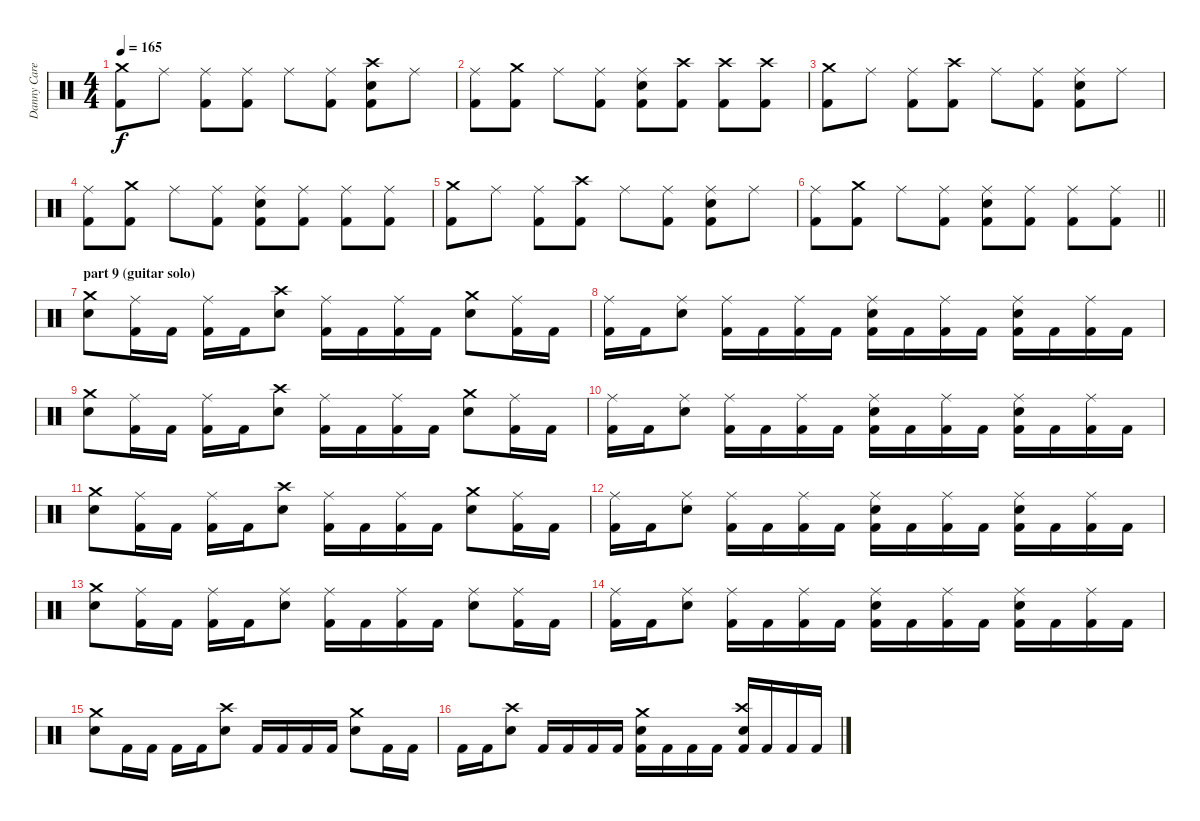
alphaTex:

\track ("Danny Carey / drums" "Danny Care") {instrument percussion}
\staff {score}
\articulation defaults
\ts (4 4)
\tempo 165
\clef neutral
\ks c
("Crash medium (hit)" "Kick (hit) 2").8{dy f} "Ride (middle)".8 ("Ride (middle)" "Kick (hit) 2").8 ("Ride (middle)" "Kick (hit) 2").8 "Ride (middle)".8 ("Ride (middle)" "Kick (hit) 2").8 ("Crash high (hit)" "Electric Snare (hit)" "Kick (hit) 2").8 "Ride (middle)".8 |
("Ride (middle)" "Kick (hit) 2").8 ("Crash medium (hit)" "Kick (hit) 2").8 "Ride (middle)".8 ("Ride (middle)" "Kick (hit) 2").8 ("Ride (middle)" "Electric Snare (hit)" "Kick (hit) 2").8 ("Crash high (hit)" "Kick (hit) 2").8 ("Crash high (hit)" "Kick (hit) 2").8 ("Crash high (hit)" "Kick (hit) 2").8 |
("Crash medium (hit)" "Kick (hit) 2").8 "Ride (middle)".8 ("Ride (middle)" "Kick (hit) 2").8 ("Crash high (hit)" "Kick (hit) 2").8 "Ride (middle)".8 ("Ride (middle)" "Kick (hit) 2").8 ("Ride (middle)" "Electric Snare (hit)" "Kick (hit) 2").8 "Ride (middle)".8 |
("Ride (middle)" "Kick (hit) 2").8 ("Crash medium (hit)" "Kick (hit) 2").8 "Ride (middle)".8 ("Ride (middle)" "Kick (hit) 2").8 ("Ride (middle)" "Electric Snare (hit)" "Kick (hit) 2").8 ("Ride (middle)" "Kick (hit) 2").8 ("Ride (middle)" "Kick (hit) 2").8 ("Ride (middle)" "Kick (hit) 2").8 |
("Crash medium (hit)" "Kick (hit) 2").8 "Ride (middle)".8 ("Ride (middle)" "Kick (hit) 2").8 ("Crash high (hit)" "Kick (hit) 2").8 "Ride (middle)".8 ("Ride (middle)" "Kick (hit) 2").8 ("Ride (middle)" "Electric Snare (hit)" "Kick (hit) 2").8 "Ride (middle)".8 |
\barLineRight lightlight
("Ride (middle)" "Kick (hit) 2").8 ("Crash medium (hit)" "Kick (hit) 2").8 "Ride (middle)".8 ("Ride (middle)" "Kick (hit) 2").8 ("Ride (middle)" "Electric Snare (hit)" "Kick (hit) 2").8 ("Ride (middle)" "Kick (hit) 2").8 ("Ride (middle)" "Kick (hit) 2").8 ("Ride (middle)" "Kick (hit) 2").8 |
\section ("" "part 9 (guitar solo)")
("Crash medium (hit)" "Electric Snare (hit)").8 ("Ride (middle)" "Kick (hit) 2").16 "Kick (hit) 2".16 ("Ride (middle)" "Kick (hit) 2").16 "Kick (hit) 2".16 ("Crash high (hit)" "Electric Snare (hit)").8 ("Ride (middle)" "Kick (hit) 2").16 "Kick (hit) 2".16 ("Ride (middle)" "Kick (hit) 2").16 "Kick (hit) 2".16 ("Crash medium (hit)" "Electric Snare (hit)").8 ("Ride (middle)" "Kick (hit) 2").16 "Kick (hit) 2".16 |
("Ride (middle)" "Kick (hit) 2").16 "Kick (hit) 2".16 ("Ride (middle)" "Electric Snare (hit)").8 ("Ride (middle)" "Kick (hit) 2").16 "Kick (hit) 2".16 ("Ride (middle)" "Kick (hit) 2").16 "Kick (hit) 2".16 ("Ride (middle)" "Electric Snare (hit)" "Kick (hit) 2").16 "Kick (hit) 2".16 ("Ride (middle)" "Kick (hit) 2").16 "Kick (hit) 2".16 ("Ride (middle)" "Electric Snare (hit)" "Kick (hit) 2").16 "Kick (hit) 2".16 ("Ride (middle)" "Kick (hit) 2").16 "Kick (hit) 2".16 |
("Crash medium (hit)" "Electric Snare (hit)").8 ("Ride (middle)" "Kick (hit) 2").16 "Kick (hit) 2".16 ("Ride (middle)" "Kick (hit) 2").16 "Kick (hit) 2".16 ("Crash high (hit)" "Electric Snare (hit)").8 ("Ride (middle)" "Kick (hit) 2").16 "Kick (hit) 2".16 ("Ride (middle)" "Kick (hit) 2").16 "Kick (hit) 2".16 ("Crash medium (hit)" "Electric Snare (hit)").8 ("Ride (middle)" "Kick (hit) 2").16 "Kick (hit) 2".16 |
("Ride (middle)" "Kick (hit) 2").16 "Kick (hit) 2".16 ("Ride (middle)" "Electric Snare (hit)").8 ("Ride (middle)" "Kick (hit) 2").16 "Kick (hit) 2".16 ("Ride (middle)" "Kick (hit) 2").16 "Kick (hit) 2".16 ("Ride (middle)" "Electric Snare (hit)" "Kick (hit) 2").16 "Kick (hit) 2".16 ("Ride (middle)" "Kick (hit) 2").16 "Kick (hit) 2".16 ("Ride (middle)" "Electric Snare (hit)" "Kick (hit) 2").16 "Kick (hit) 2".16 ("Ride (middle)" "Kick (hit) 2").16 "Kick (hit) 2".16 |
("Crash medium (hit)" "Electric Snare (hit)").8 ("Ride (middle)" "Kick (hit) 2").16 "Kick (hit) 2".16 ("Ride (middle)" "Kick (hit) 2").16 "Kick (hit) 2".16 ("Crash high (hit)" "Electric Snare (hit)").8 ("Ride (middle)" "Kick (hit) 2").16 "Kick (hit) 2".16 ("Ride (middle)" "Kick (hit) 2").16 "Kick (hit) 2".16 ("Crash medium (hit)" "Electric Snare (hit)").8 ("Ride (middle)" "Kick (hit) 2").16 "Kick (hit) 2".16 |
("Ride (middle)" "Kick (hit) 2").16 "Kick (hit) 2".16 ("Ride (middle)" "Electric Snare (hit)").8 ("Ride (middle)" "Kick (hit) 2").16 "Kick (hit) 2".16 ("Ride (middle)" "Kick (hit) 2").16 "Kick (hit) 2".16 ("Ride (middle)" "Electric Snare (hit)" "Kick (hit) 2").16 "Kick (hit) 2".16 ("Ride (middle)" "Kick (hit) 2").16 "Kick (hit) 2".16 ("Ride (middle)" "Electric Snare (hit)" "Kick (hit) 2").16 "Kick (hit) 2".16 ("Ride (middle)" "Kick (hit) 2").16 "Kick (hit) 2".16 |
("Crash medium (hit)" "Electric Snare (hit)").8 ("Ride (middle)" "Kick (hit) 2").16 "Kick (hit) 2".16 ("Ride (middle)" "Kick (hit) 2").16 "Kick (hit) 2".16 ("Ride (middle)" "Electric Snare (hit)").8 ("Ride (middle)" "Kick (hit) 2").16 "Kick (hit) 2".16 ("Ride (middle)" "Kick (hit) 2").16 "Kick (hit) 2".16 ("Ride (middle)" "Electric Snare (hit)").8 ("Ride (middle)" "Kick (hit) 2").16 "Kick (hit) 2".16 |
("Ride (middle)" "Kick (hit) 2").16 "Kick (hit) 2".16 ("Ride (middle)" "Electric Snare (hit)").8 ("Ride (middle)" "Kick (hit) 2").16 "Kick (hit) 2".16 ("Ride (middle)" "Kick (hit) 2").16 "Kick (hit) 2".16 ("Ride (middle)" "Electric Snare (hit)" "Kick (hit) 2").16 "Kick (hit) 2".16 ("Ride (middle)" "Kick (hit) 2").16 "Kick (hit) 2".16 ("Ride (middle)" "Electric Snare (hit)" "Kick (hit) 2").16 "Kick (hit) 2".16 ("Ride (middle)" "Kick (hit) 2").16 "Kick (hit) 2".16 |
("Crash medium (hit)" "Electric Snare (hit)").8 "Kick (hit) 2".16 "Kick (hit) 2".16 "Kick (hit) 2".16 "Kick (hit) 2".16 ("Crash high (hit)" "Electric Snare (hit)").8 "Kick (hit) 2".16 "Kick (hit) 2".16 "Kick (hit) 2".16 "Kick (hit) 2".16 ("Crash medium (hit)" "Electric Snare (hit)").8 "Kick (hit) 2".16 "Kick (hit) 2".16 |
"Kick (hit) 2".16 "Kick (hit) 2".16 ("Crash high (hit)" "Electric Snare (hit)").8 "Kick (hit) 2".16 "Kick (hit) 2".16 "Kick (hit) 2".16 "Kick (hit) 2".16 ("Crash medium (hit)" "Electric Snare (hit)" "Kick (hit) 2").16 "Kick (hit) 2".16 "Kick (hit) 2".16 "Kick (hit) 2".16 ("Crash high (hit)" "Electric Snare (hit)" "Kick (hit) 2").16 "Kick (hit) 2".16 "Kick (hit) 2".16 "Kick (hit) 2".16
